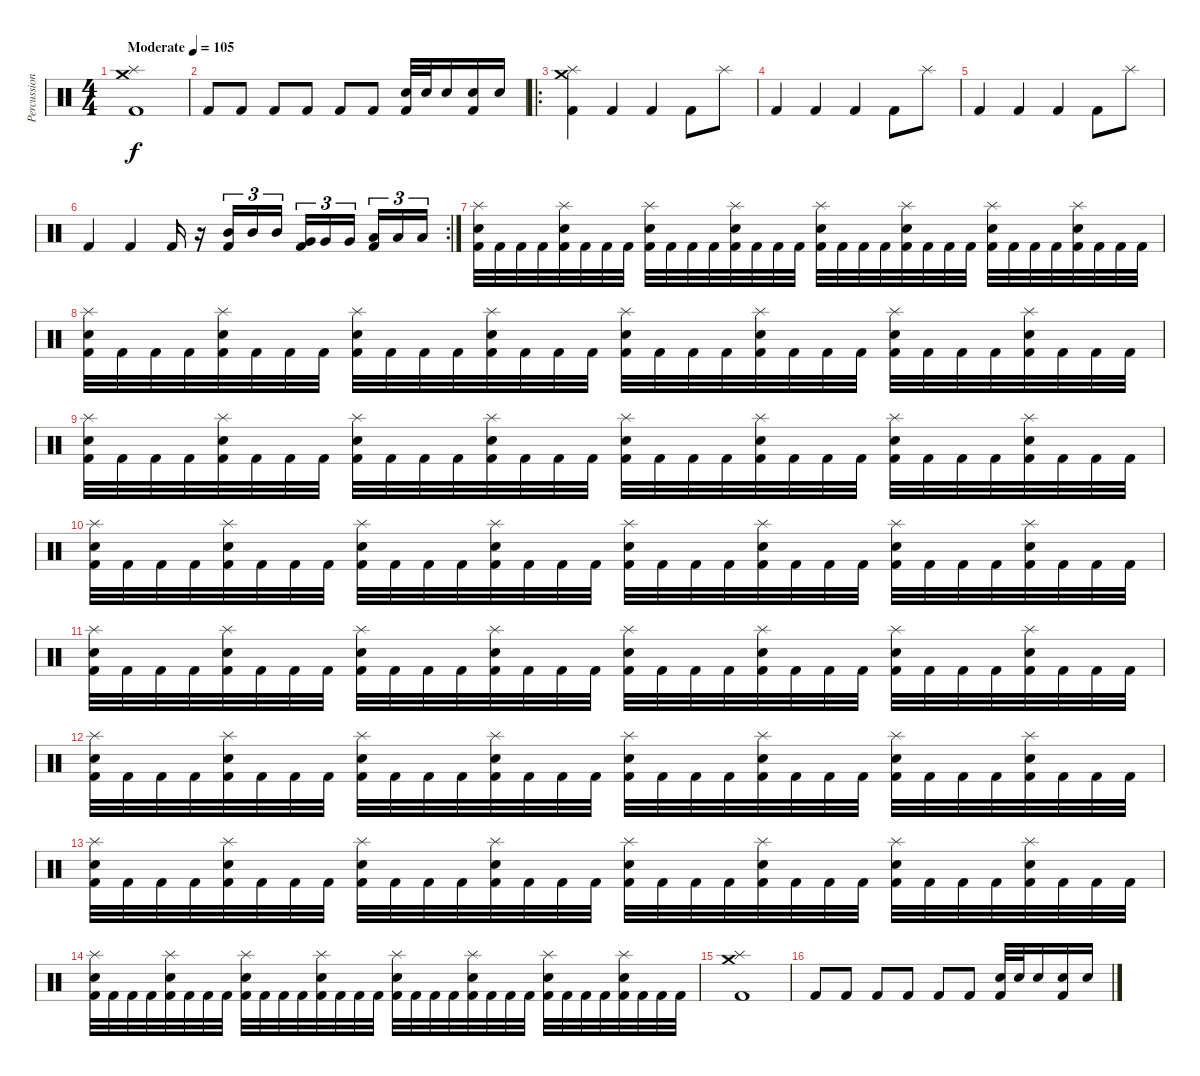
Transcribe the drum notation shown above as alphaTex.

\track ("Percussion" "Percussion") {instrument percussion}
\staff {score}
\articulation defaults
\ts (4 4)
\tempo (105 "Moderate")
\clef neutral
\ks c
("Splash (hit)" "Crash medium (hit)" "Kick (hit) 2").1{dy f} |
"Kick (hit) 2".8 "Kick (hit) 2".8 "Kick (hit) 2".8 "Kick (hit) 2".8 "Kick (hit) 2".8 "Kick (hit) 2".8 ("Snare (hit) 2" "Kick (hit) 2").32 "Snare (hit) 2".32 "Snare (hit) 2".16 ("Snare (hit) 2" "Kick (hit) 2").16 "Snare (hit) 2".16 |
\ro
("Crash medium (hit)" "Splash (hit)" "Kick (hit) 2").4 "Kick (hit) 2".4 "Kick (hit) 2".4 "Kick (hit) 2".8 "Splash (hit)".8 |
"Kick (hit) 2".4 "Kick (hit) 2".4 "Kick (hit) 2".4 "Kick (hit) 2".8 "Splash (hit)".8 |
"Kick (hit) 2".4 "Kick (hit) 2".4 "Kick (hit) 2".4 "Kick (hit) 2".8 "Splash (hit)".8 |
\rc 2 "Kick (hit) 2".4 "Kick (hit) 2".4 "Kick (hit) 2".16
r.16 ("Mid Tom (hit)" "Kick (hit) 2").16{tu (3 2)} "Mid Tom (hit)".16{tu (3 2)} "Mid Tom (hit)".16{tu (3 2)} ("Very Low Tom (hit)" "Kick (hit) 2").16{tu (3 2)} "Very Low Tom (hit)".16{tu (3 2)} "Very Low Tom (hit)".16{tu (3 2) beam splitsecondary} ("Low Floor Tom (hit)" "Kick (hit) 2").16{tu (3 2)} "Low Floor Tom (hit)".16{tu (3 2)} "Low Floor Tom (hit)".16{tu (3 2)} |
("Splash (hit)" "Snare (hit) 2" "Kick (hit) 2").32 "Kick (hit) 2".32 "Kick (hit) 2".32 "Kick (hit) 2".32 ("Splash (hit)" "Snare (hit) 2" "Kick (hit) 2").32 "Kick (hit) 2".32 "Kick (hit) 2".32 "Kick (hit) 2".32 ("Splash (hit)" "Snare (hit) 2" "Kick (hit) 2").32 "Kick (hit) 2".32 "Kick (hit) 2".32 "Kick (hit) 2".32 ("Splash (hit)" "Snare (hit) 2" "Kick (hit) 2").32 "Kick (hit) 2".32 "Kick (hit) 2".32 "Kick (hit) 2".32 ("Splash (hit)" "Snare (hit) 2" "Kick (hit) 2").32 "Kick (hit) 2".32 "Kick (hit) 2".32 "Kick (hit) 2".32 ("Splash (hit)" "Snare (hit) 2" "Kick (hit) 2").32 "Kick (hit) 2".32 "Kick (hit) 2".32 "Kick (hit) 2".32 ("Splash (hit)" "Snare (hit) 2" "Kick (hit) 2").32 "Kick (hit) 2".32 "Kick (hit) 2".32 "Kick (hit) 2".32 ("Splash (hit)" "Snare (hit) 2" "Kick (hit) 2").32 "Kick (hit) 2".32 "Kick (hit) 2".32 "Kick (hit) 2".32 |
("Splash (hit)" "Snare (hit) 2" "Kick (hit) 2").32 "Kick (hit) 2".32 "Kick (hit) 2".32 "Kick (hit) 2".32 ("Splash (hit)" "Snare (hit) 2" "Kick (hit) 2").32 "Kick (hit) 2".32 "Kick (hit) 2".32 "Kick (hit) 2".32 ("Splash (hit)" "Snare (hit) 2" "Kick (hit) 2").32 "Kick (hit) 2".32 "Kick (hit) 2".32 "Kick (hit) 2".32 ("Splash (hit)" "Snare (hit) 2" "Kick (hit) 2").32 "Kick (hit) 2".32 "Kick (hit) 2".32 "Kick (hit) 2".32 ("Splash (hit)" "Snare (hit) 2" "Kick (hit) 2").32 "Kick (hit) 2".32 "Kick (hit) 2".32 "Kick (hit) 2".32 ("Splash (hit)" "Snare (hit) 2" "Kick (hit) 2").32 "Kick (hit) 2".32 "Kick (hit) 2".32 "Kick (hit) 2".32 ("Splash (hit)" "Snare (hit) 2" "Kick (hit) 2").32 "Kick (hit) 2".32 "Kick (hit) 2".32 "Kick (hit) 2".32 ("Splash (hit)" "Snare (hit) 2" "Kick (hit) 2").32 "Kick (hit) 2".32 "Kick (hit) 2".32 "Kick (hit) 2".32 |
("Splash (hit)" "Snare (hit) 2" "Kick (hit) 2").32 "Kick (hit) 2".32 "Kick (hit) 2".32 "Kick (hit) 2".32 ("Splash (hit)" "Snare (hit) 2" "Kick (hit) 2").32 "Kick (hit) 2".32 "Kick (hit) 2".32 "Kick (hit) 2".32 ("Splash (hit)" "Snare (hit) 2" "Kick (hit) 2").32 "Kick (hit) 2".32 "Kick (hit) 2".32 "Kick (hit) 2".32 ("Splash (hit)" "Snare (hit) 2" "Kick (hit) 2").32 "Kick (hit) 2".32 "Kick (hit) 2".32 "Kick (hit) 2".32 ("Splash (hit)" "Snare (hit) 2" "Kick (hit) 2").32 "Kick (hit) 2".32 "Kick (hit) 2".32 "Kick (hit) 2".32 ("Splash (hit)" "Snare (hit) 2" "Kick (hit) 2").32 "Kick (hit) 2".32 "Kick (hit) 2".32 "Kick (hit) 2".32 ("Splash (hit)" "Snare (hit) 2" "Kick (hit) 2").32 "Kick (hit) 2".32 "Kick (hit) 2".32 "Kick (hit) 2".32 ("Splash (hit)" "Snare (hit) 2" "Kick (hit) 2").32 "Kick (hit) 2".32 "Kick (hit) 2".32 "Kick (hit) 2".32 |
("Splash (hit)" "Snare (hit) 2" "Kick (hit) 2").32 "Kick (hit) 2".32 "Kick (hit) 2".32 "Kick (hit) 2".32 ("Splash (hit)" "Snare (hit) 2" "Kick (hit) 2").32 "Kick (hit) 2".32 "Kick (hit) 2".32 "Kick (hit) 2".32 ("Splash (hit)" "Snare (hit) 2" "Kick (hit) 2").32 "Kick (hit) 2".32 "Kick (hit) 2".32 "Kick (hit) 2".32 ("Splash (hit)" "Snare (hit) 2" "Kick (hit) 2").32 "Kick (hit) 2".32 "Kick (hit) 2".32 "Kick (hit) 2".32 ("Splash (hit)" "Snare (hit) 2" "Kick (hit) 2").32 "Kick (hit) 2".32 "Kick (hit) 2".32 "Kick (hit) 2".32 ("Splash (hit)" "Snare (hit) 2" "Kick (hit) 2").32 "Kick (hit) 2".32 "Kick (hit) 2".32 "Kick (hit) 2".32 ("Splash (hit)" "Snare (hit) 2" "Kick (hit) 2").32 "Kick (hit) 2".32 "Kick (hit) 2".32 "Kick (hit) 2".32 ("Splash (hit)" "Snare (hit) 2" "Kick (hit) 2").32 "Kick (hit) 2".32 "Kick (hit) 2".32 "Kick (hit) 2".32 |
("Splash (hit)" "Snare (hit) 2" "Kick (hit) 2").32 "Kick (hit) 2".32 "Kick (hit) 2".32 "Kick (hit) 2".32 ("Splash (hit)" "Snare (hit) 2" "Kick (hit) 2").32 "Kick (hit) 2".32 "Kick (hit) 2".32 "Kick (hit) 2".32 ("Splash (hit)" "Snare (hit) 2" "Kick (hit) 2").32 "Kick (hit) 2".32 "Kick (hit) 2".32 "Kick (hit) 2".32 ("Splash (hit)" "Snare (hit) 2" "Kick (hit) 2").32 "Kick (hit) 2".32 "Kick (hit) 2".32 "Kick (hit) 2".32 ("Splash (hit)" "Snare (hit) 2" "Kick (hit) 2").32 "Kick (hit) 2".32 "Kick (hit) 2".32 "Kick (hit) 2".32 ("Splash (hit)" "Snare (hit) 2" "Kick (hit) 2").32 "Kick (hit) 2".32 "Kick (hit) 2".32 "Kick (hit) 2".32 ("Splash (hit)" "Snare (hit) 2" "Kick (hit) 2").32 "Kick (hit) 2".32 "Kick (hit) 2".32 "Kick (hit) 2".32 ("Splash (hit)" "Snare (hit) 2" "Kick (hit) 2").32 "Kick (hit) 2".32 "Kick (hit) 2".32 "Kick (hit) 2".32 |
("Splash (hit)" "Snare (hit) 2" "Kick (hit) 2").32 "Kick (hit) 2".32 "Kick (hit) 2".32 "Kick (hit) 2".32 ("Splash (hit)" "Snare (hit) 2" "Kick (hit) 2").32 "Kick (hit) 2".32 "Kick (hit) 2".32 "Kick (hit) 2".32 ("Splash (hit)" "Snare (hit) 2" "Kick (hit) 2").32 "Kick (hit) 2".32 "Kick (hit) 2".32 "Kick (hit) 2".32 ("Splash (hit)" "Snare (hit) 2" "Kick (hit) 2").32 "Kick (hit) 2".32 "Kick (hit) 2".32 "Kick (hit) 2".32 ("Splash (hit)" "Snare (hit) 2" "Kick (hit) 2").32 "Kick (hit) 2".32 "Kick (hit) 2".32 "Kick (hit) 2".32 ("Splash (hit)" "Snare (hit) 2" "Kick (hit) 2").32 "Kick (hit) 2".32 "Kick (hit) 2".32 "Kick (hit) 2".32 ("Splash (hit)" "Snare (hit) 2" "Kick (hit) 2").32 "Kick (hit) 2".32 "Kick (hit) 2".32 "Kick (hit) 2".32 ("Splash (hit)" "Snare (hit) 2" "Kick (hit) 2").32 "Kick (hit) 2".32 "Kick (hit) 2".32 "Kick (hit) 2".32 |
("Splash (hit)" "Snare (hit) 2" "Kick (hit) 2").32 "Kick (hit) 2".32 "Kick (hit) 2".32 "Kick (hit) 2".32 ("Splash (hit)" "Snare (hit) 2" "Kick (hit) 2").32 "Kick (hit) 2".32 "Kick (hit) 2".32 "Kick (hit) 2".32 ("Splash (hit)" "Snare (hit) 2" "Kick (hit) 2").32 "Kick (hit) 2".32 "Kick (hit) 2".32 "Kick (hit) 2".32 ("Splash (hit)" "Snare (hit) 2" "Kick (hit) 2").32 "Kick (hit) 2".32 "Kick (hit) 2".32 "Kick (hit) 2".32 ("Splash (hit)" "Snare (hit) 2" "Kick (hit) 2").32 "Kick (hit) 2".32 "Kick (hit) 2".32 "Kick (hit) 2".32 ("Splash (hit)" "Snare (hit) 2" "Kick (hit) 2").32 "Kick (hit) 2".32 "Kick (hit) 2".32 "Kick (hit) 2".32 ("Splash (hit)" "Snare (hit) 2" "Kick (hit) 2").32 "Kick (hit) 2".32 "Kick (hit) 2".32 "Kick (hit) 2".32 ("Splash (hit)" "Snare (hit) 2" "Kick (hit) 2").32 "Kick (hit) 2".32 "Kick (hit) 2".32 "Kick (hit) 2".32 |
("Splash (hit)" "Snare (hit) 2" "Kick (hit) 2").32 "Kick (hit) 2".32 "Kick (hit) 2".32 "Kick (hit) 2".32 ("Splash (hit)" "Snare (hit) 2" "Kick (hit) 2").32 "Kick (hit) 2".32 "Kick (hit) 2".32 "Kick (hit) 2".32 ("Splash (hit)" "Snare (hit) 2" "Kick (hit) 2").32 "Kick (hit) 2".32 "Kick (hit) 2".32 "Kick (hit) 2".32 ("Splash (hit)" "Snare (hit) 2" "Kick (hit) 2").32 "Kick (hit) 2".32 "Kick (hit) 2".32 "Kick (hit) 2".32 ("Splash (hit)" "Snare (hit) 2" "Kick (hit) 2").32 "Kick (hit) 2".32 "Kick (hit) 2".32 "Kick (hit) 2".32 ("Splash (hit)" "Snare (hit) 2" "Kick (hit) 2").32 "Kick (hit) 2".32 "Kick (hit) 2".32 "Kick (hit) 2".32 ("Splash (hit)" "Snare (hit) 2" "Kick (hit) 2").32 "Kick (hit) 2".32 "Kick (hit) 2".32 "Kick (hit) 2".32 ("Splash (hit)" "Snare (hit) 2" "Kick (hit) 2").32 "Kick (hit) 2".32 "Kick (hit) 2".32 "Kick (hit) 2".32 |
("Splash (hit)" "Crash medium (hit)" "Kick (hit) 2").1 |
"Kick (hit) 2".8 "Kick (hit) 2".8 "Kick (hit) 2".8 "Kick (hit) 2".8 "Kick (hit) 2".8 "Kick (hit) 2".8 ("Snare (hit) 2" "Kick (hit) 2").32 "Snare (hit) 2".32 "Snare (hit) 2".16 ("Snare (hit) 2" "Kick (hit) 2").16 "Snare (hit) 2".16
